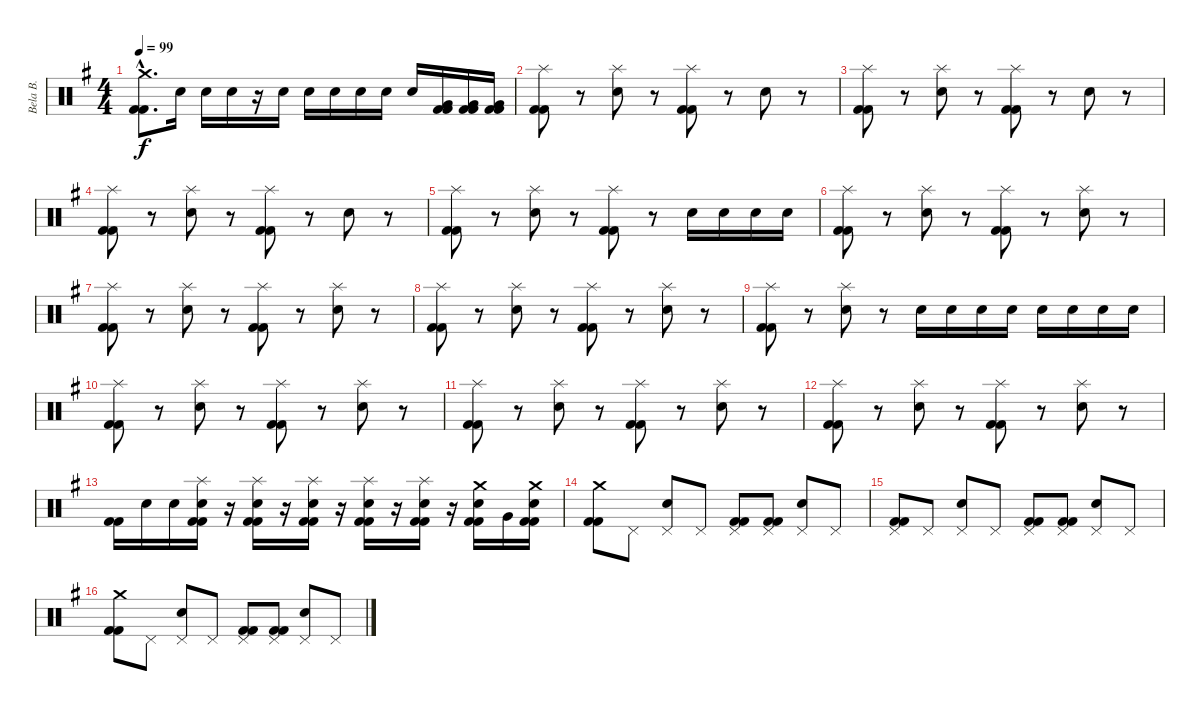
\track ("Bela B." "Bela B.") {instrument percussion}
\staff {score}
\articulation defaults
\ts (4 4)
\tempo 99
\clef neutral
\ks g
("Crash medium (hit)"{hac} "Kick (hit) 2"{hac} "Kick (hit) 2"{hac}).8{d dy f} "Snare (hit) 2".16 "Snare (hit) 2".16 "Snare (hit) 2".16 r.16 "Snare (hit) 2".16 "Snare (hit) 2".16 "Snare (hit) 2".16 "Snare (hit) 2".16 "Snare (hit) 2".16 "Snare (hit) 2".16 ("Very Low Tom (hit)" "Kick (hit) 2" "Kick (hit) 2").16 ("Very Low Tom (hit)" "Kick (hit) 2" "Kick (hit) 2").16 ("Very Low Tom (hit)" "Kick (hit) 2" "Kick (hit) 2").16 |
("Splash (hit)" "Kick (hit) 2" "Kick (hit) 2").8 r.8 ("Splash (hit)" "Snare (hit) 2").8 r.8 ("Splash (hit)" "Kick (hit) 2" "Kick (hit) 2").8 r.8 "Snare (hit) 2".8 r.8 |
("Splash (hit)" "Kick (hit) 2" "Kick (hit) 2").8 r.8 ("Splash (hit)" "Snare (hit) 2").8 r.8 ("Splash (hit)" "Kick (hit) 2" "Kick (hit) 2").8 r.8 "Snare (hit) 2".8 r.8 |
("Splash (hit)" "Kick (hit) 2" "Kick (hit) 2").8 r.8 ("Splash (hit)" "Snare (hit) 2").8 r.8 ("Splash (hit)" "Kick (hit) 2" "Kick (hit) 2").8 r.8 "Snare (hit) 2".8 r.8 |
("Splash (hit)" "Kick (hit) 2" "Kick (hit) 2").8 r.8 ("Splash (hit)" "Snare (hit) 2").8 r.8 ("Splash (hit)" "Kick (hit) 2" "Kick (hit) 2").8 r.8 "Snare (hit) 2".16 "Snare (hit) 2".16 "Snare (hit) 2".16 "Snare (hit) 2".16 |
("Splash (hit)" "Kick (hit) 2" "Kick (hit) 2").8 r.8 ("Splash (hit)" "Snare (hit) 2").8 r.8 ("Splash (hit)" "Kick (hit) 2" "Kick (hit) 2").8 r.8 ("Splash (hit)" "Snare (hit) 2").8 r.8 |
("Splash (hit)" "Kick (hit) 2" "Kick (hit) 2").8 r.8 ("Splash (hit)" "Snare (hit) 2").8 r.8 ("Splash (hit)" "Kick (hit) 2" "Kick (hit) 2").8 r.8 ("Splash (hit)" "Snare (hit) 2").8 r.8 |
("Splash (hit)" "Kick (hit) 2" "Kick (hit) 2").8 r.8 ("Splash (hit)" "Snare (hit) 2").8 r.8 ("Splash (hit)" "Kick (hit) 2" "Kick (hit) 2").8 r.8 ("Splash (hit)" "Snare (hit) 2").8 r.8 |
("Splash (hit)" "Kick (hit) 2" "Kick (hit) 2").8 r.8 ("Splash (hit)" "Snare (hit) 2").8 r.8 "Snare (hit) 2".16 "Snare (hit) 2".16 "Snare (hit) 2".16 "Snare (hit) 2".16 "Snare (hit) 2".16 "Snare (hit) 2".16 "Snare (hit) 2".16 "Snare (hit) 2".16 |
("Splash (hit)" "Kick (hit) 2" "Kick (hit) 2").8 r.8 ("Splash (hit)" "Snare (hit) 2").8 r.8 ("Splash (hit)" "Kick (hit) 2" "Kick (hit) 2").8 r.8 ("Splash (hit)" "Snare (hit) 2").8 r.8 |
("Splash (hit)" "Kick (hit) 2" "Kick (hit) 2").8 r.8 ("Splash (hit)" "Snare (hit) 2").8 r.8 ("Splash (hit)" "Kick (hit) 2" "Kick (hit) 2").8 r.8 ("Splash (hit)" "Snare (hit) 2").8 r.8 |
("Splash (hit)" "Kick (hit) 2" "Kick (hit) 2").8 r.8 ("Splash (hit)" "Snare (hit) 2").8 r.8 ("Splash (hit)" "Kick (hit) 2" "Kick (hit) 2").8 r.8 ("Splash (hit)" "Snare (hit) 2").8 r.8 |
("Kick (hit) 2" "Kick (hit) 2").16 "Snare (hit) 2".16 "Snare (hit) 2".16 ("Splash (hit)" "Snare (hit) 2" "Kick (hit) 2" "Kick (hit) 2").16 r.16 ("Splash (hit)" "Snare (hit) 2" "Kick (hit) 2" "Kick (hit) 2").16 r.16 ("Splash (hit)" "Snare (hit) 2" "Kick (hit) 2" "Kick (hit) 2").16 r.16 ("Splash (hit)" "Snare (hit) 2" "Kick (hit) 2" "Kick (hit) 2").16 r.16 ("Splash (hit)" "Snare (hit) 2" "Kick (hit) 2" "Kick (hit) 2").16 r.16 ("Crash medium (hit)" "Snare (hit) 2" "Kick (hit) 2" "Kick (hit) 2").16 "Very Low Tom (hit)".16 ("Crash medium (hit)" "Snare (hit) 2" "Kick (hit) 2" "Kick (hit) 2").16 |
("Crash medium (hit)" "Kick (hit) 2" "Kick (hit) 2").8 "Pedal Hi-Hat (hit)".8 ("Pedal Hi-Hat (hit)" "Snare (hit) 2").8 "Pedal Hi-Hat (hit)".8 ("Pedal Hi-Hat (hit)" "Kick (hit) 2" "Kick (hit) 2").8 ("Pedal Hi-Hat (hit)" "Kick (hit) 2" "Kick (hit) 2").8 ("Pedal Hi-Hat (hit)" "Snare (hit) 2").8 "Pedal Hi-Hat (hit)".8 |
("Pedal Hi-Hat (hit)" "Kick (hit) 2" "Kick (hit) 2").8 "Pedal Hi-Hat (hit)".8 ("Pedal Hi-Hat (hit)" "Snare (hit) 2").8 "Pedal Hi-Hat (hit)".8 ("Pedal Hi-Hat (hit)" "Kick (hit) 2" "Kick (hit) 2").8 ("Pedal Hi-Hat (hit)" "Kick (hit) 2" "Kick (hit) 2").8 ("Pedal Hi-Hat (hit)" "Snare (hit) 2").8 "Pedal Hi-Hat (hit)".8 |
("Crash medium (hit)" "Kick (hit) 2" "Kick (hit) 2").8 "Pedal Hi-Hat (hit)".8 ("Pedal Hi-Hat (hit)" "Snare (hit) 2").8 "Pedal Hi-Hat (hit)".8 ("Pedal Hi-Hat (hit)" "Kick (hit) 2" "Kick (hit) 2").8 ("Pedal Hi-Hat (hit)" "Kick (hit) 2" "Kick (hit) 2").8 ("Pedal Hi-Hat (hit)" "Snare (hit) 2").8 "Pedal Hi-Hat (hit)".8
